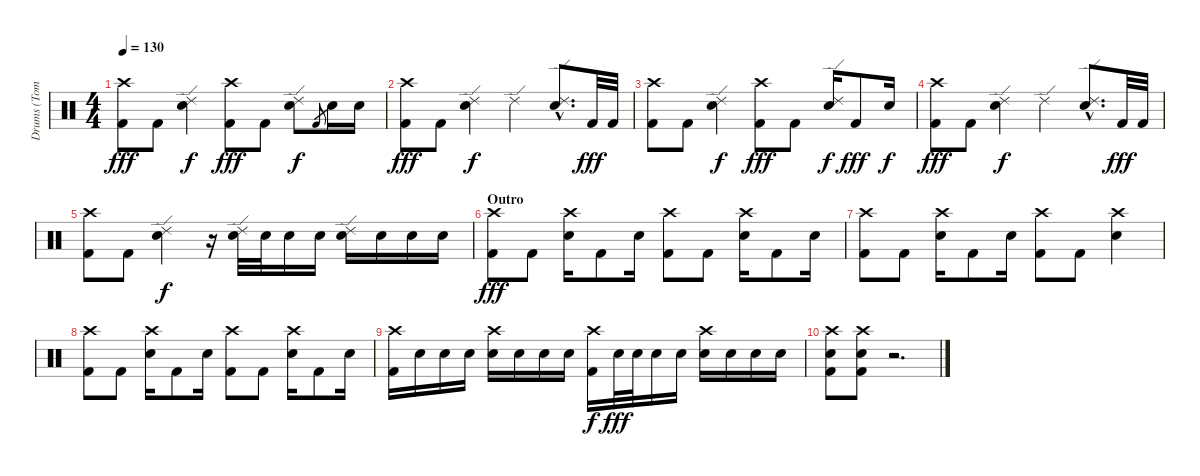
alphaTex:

\track ("Drums (Tommy Decker)" "Drums (Tom") {instrument percussion}
\staff {score}
\articulation defaults
\ts (4 4)
\tempo 130
\clef neutral
\ks c
("Crash high (hit)" "Kick (hit) 2").8{dy fff} "Kick (hit) 2".8 ("Ride (edge) 2" "Electric Snare (hit)").4{dy f} ("Crash high (hit)" "Kick (hit) 2").8{dy fff} "Kick (hit) 2".8 ("Ride (edge) 2" "Electric Snare (hit)").8{dy f} "Kick (hit) 2".8{gr} "Electric Snare (hit)".16 "Electric Snare (hit)".16 |
("Crash high (hit)" "Kick (hit) 2").8{dy fff} "Kick (hit) 2".8 ("Ride (edge) 2" "Electric Snare (hit)").4{dy f} "Ride (edge) 2".4 ("Ride (edge) 2"{hac} "Electric Snare (hit)"{hac}).8{d} "Kick (hit) 2".32{dy fff} "Kick (hit) 2".32 |
("Crash high (hit)" "Kick (hit) 2").8 "Kick (hit) 2".8 ("Ride (edge) 2" "Electric Snare (hit)").4{dy f} ("Crash high (hit)" "Kick (hit) 2").8{dy fff} "Kick (hit) 2".8 ("Ride (edge) 2" "Electric Snare (hit)").16{dy f} "Kick (hit) 2".8{dy fff} "Electric Snare (hit)".16{dy f} |
("Crash high (hit)" "Kick (hit) 2").8{dy fff} "Kick (hit) 2".8 ("Ride (edge) 2" "Electric Snare (hit)").4{dy f} "Ride (edge) 2".4 ("Ride (edge) 2"{hac} "Electric Snare (hit)"{hac}).8{d} "Kick (hit) 2".32{dy fff} "Kick (hit) 2".32 |
("Crash high (hit)" "Kick (hit) 2").8 "Kick (hit) 2".8 ("Ride (edge) 2" "Electric Snare (hit)").4{dy f} r.16 ("Ride (edge) 2" "Electric Snare (hit)").32 "Electric Snare (hit)".32 "Electric Snare (hit)".16 "Electric Snare (hit)".16 ("Ride (edge) 2" "Electric Snare (hit)").16 "Electric Snare (hit)".16 "Electric Snare (hit)".16 "Electric Snare (hit)".16 |
\section ("" "Outro")
("Crash high (hit)" "Kick (hit) 2").8{dy fff} "Kick (hit) 2".8 ("Crash high (hit)" "Electric Snare (hit)").16 "Kick (hit) 2".8 "Electric Snare (hit)".16 ("Crash high (hit)" "Kick (hit) 2").8 "Kick (hit) 2".8 ("Crash high (hit)" "Electric Snare (hit)").16 "Kick (hit) 2".8 "Electric Snare (hit)".16 |
("Crash high (hit)" "Kick (hit) 2").8 "Kick (hit) 2".8 ("Crash high (hit)" "Electric Snare (hit)").16 "Kick (hit) 2".8 "Electric Snare (hit)".16 ("Crash high (hit)" "Kick (hit) 2").8 "Kick (hit) 2".8 ("Crash high (hit)" "Electric Snare (hit)").4 |
("Crash high (hit)" "Kick (hit) 2").8 "Kick (hit) 2".8 ("Crash high (hit)" "Electric Snare (hit)").16 "Kick (hit) 2".8 "Electric Snare (hit)".16 ("Crash high (hit)" "Kick (hit) 2").8 "Kick (hit) 2".8 ("Crash high (hit)" "Electric Snare (hit)").16 "Kick (hit) 2".8 "Electric Snare (hit)".16 |
("Crash high (hit)" "Kick (hit) 2").16 "Electric Snare (hit)".16 "Electric Snare (hit)".16 "Electric Snare (hit)".16 ("Crash high (hit)" "Electric Snare (hit)").16 "Electric Snare (hit)".16 "Electric Snare (hit)".16 "Electric Snare (hit)".16 ("Crash high (hit)" "Kick (hit) 2").16{dy f} "Electric Snare (hit)".32{dy fff} "Electric Snare (hit)".32 "Electric Snare (hit)".16 "Electric Snare (hit)".16 ("Crash high (hit)" "Electric Snare (hit)").16 "Electric Snare (hit)".16 "Electric Snare (hit)".16 "Electric Snare (hit)".16 |
("Crash high (hit)" "Electric Snare (hit)" "Kick (hit) 2").8 ("Crash high (hit)" "Electric Snare (hit)" "Kick (hit) 2").8 r.2{d}
